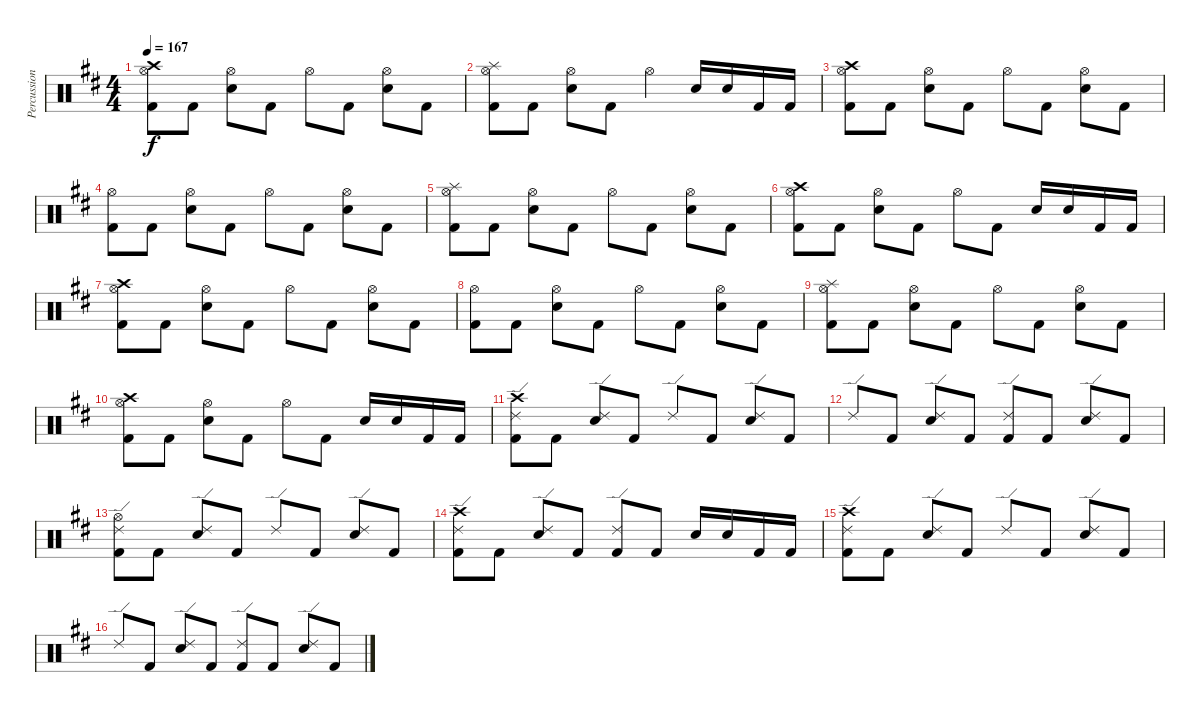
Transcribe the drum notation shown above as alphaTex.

\track ("Percussion" "Percussion") {instrument percussion}
\staff {score}
\articulation defaults
\ts (4 4)
\tempo 167
\clef neutral
\ks d
("Hi-Hat (open)" "Crash high (hit)" "Kick (hit) 2").8{dy f} "Kick (hit) 2".8 ("Hi-Hat (open)" "Electric Snare (hit)").8 "Kick (hit) 2".8 "Hi-Hat (open)".8 "Kick (hit) 2".8 ("Hi-Hat (open)" "Electric Snare (hit)").8 "Kick (hit) 2".8 |
("Hi-Hat (open)" "Splash (hit)" "Kick (hit) 2").8 "Kick (hit) 2".8 ("Hi-Hat (open)" "Electric Snare (hit)").8 "Kick (hit) 2".8 "Hi-Hat (open)".4 "Electric Snare (hit)".16 "Electric Snare (hit)".16 "Kick (hit) 2".16 "Kick (hit) 2".16 |
("Hi-Hat (open)" "Crash high (hit)" "Kick (hit) 2").8 "Kick (hit) 2".8 ("Hi-Hat (open)" "Electric Snare (hit)").8 "Kick (hit) 2".8 "Hi-Hat (open)".8 "Kick (hit) 2".8 ("Hi-Hat (open)" "Electric Snare (hit)").8 "Kick (hit) 2".8 |
("Hi-Hat (open)" "Kick (hit) 2").8 "Kick (hit) 2".8 ("Hi-Hat (open)" "Electric Snare (hit)").8 "Kick (hit) 2".8 "Hi-Hat (open)".8 "Kick (hit) 2".8 ("Hi-Hat (open)" "Electric Snare (hit)").8 "Kick (hit) 2".8 |
("Hi-Hat (open)" "Splash (hit)" "Kick (hit) 2").8 "Kick (hit) 2".8 ("Hi-Hat (open)" "Electric Snare (hit)").8 "Kick (hit) 2".8 "Hi-Hat (open)".8 "Kick (hit) 2".8 ("Hi-Hat (open)" "Electric Snare (hit)").8 "Kick (hit) 2".8 |
("Hi-Hat (open)" "Crash high (hit)" "Kick (hit) 2").8 "Kick (hit) 2".8 ("Hi-Hat (open)" "Electric Snare (hit)").8 "Kick (hit) 2".8 "Hi-Hat (open)".8 "Kick (hit) 2".8 "Electric Snare (hit)".16 "Electric Snare (hit)".16 "Kick (hit) 2".16 "Kick (hit) 2".16 |
("Hi-Hat (open)" "Crash high (hit)" "Kick (hit) 2").8 "Kick (hit) 2".8 ("Hi-Hat (open)" "Electric Snare (hit)").8 "Kick (hit) 2".8 "Hi-Hat (open)".8 "Kick (hit) 2".8 ("Hi-Hat (open)" "Electric Snare (hit)").8 "Kick (hit) 2".8 |
("Hi-Hat (open)" "Kick (hit) 2").8 "Kick (hit) 2".8 ("Hi-Hat (open)" "Electric Snare (hit)").8 "Kick (hit) 2".8 "Hi-Hat (open)".8 "Kick (hit) 2".8 ("Hi-Hat (open)" "Electric Snare (hit)").8 "Kick (hit) 2".8 |
("Hi-Hat (open)" "Splash (hit)" "Kick (hit) 2").8 "Kick (hit) 2".8 ("Hi-Hat (open)" "Electric Snare (hit)").8 "Kick (hit) 2".8 "Hi-Hat (open)".8 "Kick (hit) 2".8 ("Hi-Hat (open)" "Electric Snare (hit)").8 "Kick (hit) 2".8 |
("Hi-Hat (open)" "Crash high (hit)" "Kick (hit) 2").8 "Kick (hit) 2".8 ("Hi-Hat (open)" "Electric Snare (hit)").8 "Kick (hit) 2".8 "Hi-Hat (open)".8 "Kick (hit) 2".8 "Electric Snare (hit)".16 "Electric Snare (hit)".16 "Kick (hit) 2".16 "Kick (hit) 2".16 |
("Ride (edge) 2" "Crash high (hit)" "Kick (hit) 2").8 "Kick (hit) 2".8 ("Ride (edge) 2" "Electric Snare (hit)").8 "Kick (hit) 2".8 "Ride (edge) 2".8 "Kick (hit) 2".8 ("Ride (edge) 2" "Electric Snare (hit)").8 "Kick (hit) 2".8 |
"Ride (edge) 2".8 "Kick (hit) 2".8 ("Ride (edge) 2" "Electric Snare (hit)").8 "Kick (hit) 2".8 ("Ride (edge) 2" "Kick (hit) 2").8 "Kick (hit) 2".8 ("Ride (edge) 2" "Electric Snare (hit)").8 "Kick (hit) 2".8 |
("Ride (edge) 2" "Hi-Hat (open)" "Kick (hit) 2").8 "Kick (hit) 2".8 ("Ride (edge) 2" "Electric Snare (hit)").8 "Kick (hit) 2".8 "Ride (edge) 2".8 "Kick (hit) 2".8 ("Ride (edge) 2" "Electric Snare (hit)").8 "Kick (hit) 2".8 |
("Ride (edge) 2" "Crash high (hit)" "Kick (hit) 2").8 "Kick (hit) 2".8 ("Ride (edge) 2" "Electric Snare (hit)").8 "Kick (hit) 2".8 ("Ride (edge) 2" "Kick (hit) 2").8 "Kick (hit) 2".8 "Electric Snare (hit)".16 "Electric Snare (hit)".16 "Kick (hit) 2".16 "Kick (hit) 2".16 |
("Ride (edge) 2" "Crash high (hit)" "Kick (hit) 2").8 "Kick (hit) 2".8 ("Ride (edge) 2" "Electric Snare (hit)").8 "Kick (hit) 2".8 "Ride (edge) 2".8 "Kick (hit) 2".8 ("Ride (edge) 2" "Electric Snare (hit)").8 "Kick (hit) 2".8 |
"Ride (edge) 2".8 "Kick (hit) 2".8 ("Ride (edge) 2" "Electric Snare (hit)").8 "Kick (hit) 2".8 ("Ride (edge) 2" "Kick (hit) 2").8 "Kick (hit) 2".8 ("Ride (edge) 2" "Electric Snare (hit)").8 "Kick (hit) 2".8
